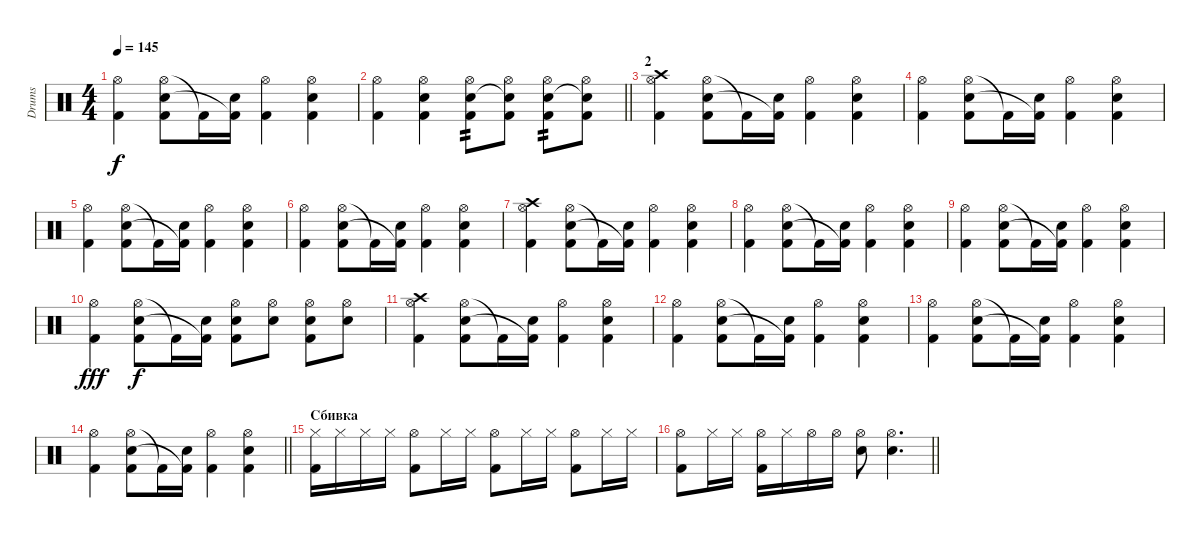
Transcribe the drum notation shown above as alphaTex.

\track ("Drums" "Drums") {instrument percussion}
\staff {score}
\articulation defaults
\ts (4 4)
\tempo 145
\clef neutral
\ks c
("Hi-Hat (open)" "Kick (hit) 2").4{dy f} ("Hi-Hat (open)" "Electric Snare (hit)" "Kick (hit) 2").8 "Kick (hit) 2"{t}.16 ("Electric Snare (hit)" "Kick (hit) 2"{t}).16 ("Hi-Hat (open)" "Kick (hit) 2").4 ("Hi-Hat (open)" "Electric Snare (hit)" "Kick (hit) 2").4 |
\barLineRight lightlight
("Hi-Hat (open)" "Kick (hit) 2").4 ("Hi-Hat (open)" "Electric Snare (hit)" "Kick (hit) 2").4 ("Hi-Hat (open)" "Electric Snare (hit)" "Kick (hit) 2").8{tp 2} ("Hi-Hat (open)" "Electric Snare (hit)"{t} "Kick (hit) 2").8 ("Hi-Hat (open)" "Electric Snare (hit)" "Kick (hit) 2").8{tp 2} ("Hi-Hat (open)" "Electric Snare (hit)"{t} "Kick (hit) 2").8 |
\section ("" "2")
("Crash high (hit)" "Hi-Hat (open)" "Kick (hit) 2").4 ("Hi-Hat (open)" "Electric Snare (hit)" "Kick (hit) 2").8 "Kick (hit) 2"{t}.16 ("Electric Snare (hit)" "Kick (hit) 2"{t}).16 ("Hi-Hat (open)" "Kick (hit) 2").4 ("Hi-Hat (open)" "Electric Snare (hit)" "Kick (hit) 2").4 |
("Hi-Hat (open)" "Kick (hit) 2").4 ("Hi-Hat (open)" "Electric Snare (hit)" "Kick (hit) 2").8 "Kick (hit) 2"{t}.16 ("Electric Snare (hit)" "Kick (hit) 2"{t}).16 ("Hi-Hat (open)" "Kick (hit) 2").4 ("Hi-Hat (open)" "Electric Snare (hit)" "Kick (hit) 2").4 |
("Hi-Hat (open)" "Kick (hit) 2").4 ("Hi-Hat (open)" "Electric Snare (hit)" "Kick (hit) 2").8 "Kick (hit) 2"{t}.16 ("Electric Snare (hit)" "Kick (hit) 2"{t}).16 ("Hi-Hat (open)" "Kick (hit) 2").4 ("Hi-Hat (open)" "Electric Snare (hit)" "Kick (hit) 2").4 |
("Hi-Hat (open)" "Kick (hit) 2").4 ("Hi-Hat (open)" "Electric Snare (hit)" "Kick (hit) 2").8 "Kick (hit) 2"{t}.16 ("Electric Snare (hit)" "Kick (hit) 2"{t}).16 ("Hi-Hat (open)" "Kick (hit) 2").4 ("Hi-Hat (open)" "Electric Snare (hit)" "Kick (hit) 2").4 |
("Crash high (hit)" "Hi-Hat (open)" "Kick (hit) 2").4 ("Hi-Hat (open)" "Electric Snare (hit)" "Kick (hit) 2").8 "Kick (hit) 2"{t}.16 ("Electric Snare (hit)" "Kick (hit) 2"{t}).16 ("Hi-Hat (open)" "Kick (hit) 2").4 ("Hi-Hat (open)" "Electric Snare (hit)" "Kick (hit) 2").4 |
("Hi-Hat (open)" "Kick (hit) 2").4 ("Hi-Hat (open)" "Electric Snare (hit)" "Kick (hit) 2").8 "Kick (hit) 2"{t}.16 ("Electric Snare (hit)" "Kick (hit) 2"{t}).16 ("Hi-Hat (open)" "Kick (hit) 2").4 ("Hi-Hat (open)" "Electric Snare (hit)" "Kick (hit) 2").4 |
("Hi-Hat (open)" "Kick (hit) 2").4 ("Hi-Hat (open)" "Electric Snare (hit)" "Kick (hit) 2").8 "Kick (hit) 2"{t}.16 ("Electric Snare (hit)" "Kick (hit) 2"{t}).16 ("Hi-Hat (open)" "Kick (hit) 2").4 ("Hi-Hat (open)" "Electric Snare (hit)" "Kick (hit) 2").4 |
("Hi-Hat (open)" "Kick (hit) 2").4{dy fff} ("Hi-Hat (open)" "Electric Snare (hit)" "Kick (hit) 2").8{dy f} "Kick (hit) 2"{t}.16 ("Electric Snare (hit)" "Kick (hit) 2"{t}).16 ("Hi-Hat (open)" "Electric Snare (hit)" "Kick (hit) 2").8 ("Hi-Hat (open)" "Electric Snare (hit)").8 ("Hi-Hat (open)" "Electric Snare (hit)" "Kick (hit) 2").8 ("Hi-Hat (open)" "Electric Snare (hit)").8 |
("Crash high (hit)" "Hi-Hat (open)" "Kick (hit) 2").4 ("Hi-Hat (open)" "Electric Snare (hit)" "Kick (hit) 2").8 "Kick (hit) 2"{t}.16 ("Electric Snare (hit)" "Kick (hit) 2"{t}).16 ("Hi-Hat (open)" "Kick (hit) 2").4 ("Hi-Hat (open)" "Electric Snare (hit)" "Kick (hit) 2").4 |
("Hi-Hat (open)" "Kick (hit) 2").4 ("Hi-Hat (open)" "Electric Snare (hit)" "Kick (hit) 2").8 "Kick (hit) 2"{t}.16 ("Electric Snare (hit)" "Kick (hit) 2"{t}).16 ("Hi-Hat (open)" "Kick (hit) 2").4 ("Hi-Hat (open)" "Electric Snare (hit)" "Kick (hit) 2").4 |
("Hi-Hat (open)" "Kick (hit) 2").4 ("Hi-Hat (open)" "Electric Snare (hit)" "Kick (hit) 2").8 "Kick (hit) 2"{t}.16 ("Electric Snare (hit)" "Kick (hit) 2"{t}).16 ("Hi-Hat (open)" "Kick (hit) 2").4 ("Hi-Hat (open)" "Electric Snare (hit)" "Kick (hit) 2").4 |
\barLineRight lightlight
("Hi-Hat (open)" "Kick (hit) 2").4 ("Hi-Hat (open)" "Electric Snare (hit)" "Kick (hit) 2").8 "Kick (hit) 2"{t}.16 ("Electric Snare (hit)" "Kick (hit) 2"{t}).16 ("Hi-Hat (open)" "Kick (hit) 2").4 ("Hi-Hat (open)" "Electric Snare (hit)" "Kick (hit) 2").4 |
\section ("" "Сбивка")
("Hi-Hat (closed)" "Kick (hit) 2").16 "Hi-Hat (closed)".16 "Hi-Hat (closed)".16 "Hi-Hat (closed)".16 ("Hi-Hat (open)" "Kick (hit) 2").8 "Hi-Hat (closed)".16 "Hi-Hat (closed)".16 ("Hi-Hat (open)" "Kick (hit) 2").8 "Hi-Hat (closed)".16 "Hi-Hat (closed)".16 ("Hi-Hat (open)" "Kick (hit) 2").8 "Hi-Hat (closed)".16 "Hi-Hat (closed)".16 |
\barLineRight lightlight
("Hi-Hat (open)" "Kick (hit) 2").8 "Hi-Hat (closed)".16 "Hi-Hat (closed)".16 ("Hi-Hat (open)" "Kick (hit) 2").16 "Hi-Hat (closed)".16 "Hi-Hat (open)".16 "Hi-Hat (open)".16 ("Hi-Hat (open)" "Electric Snare (hit)").8 ("Hi-Hat (open)" "Electric Snare (hit)").4{d}
